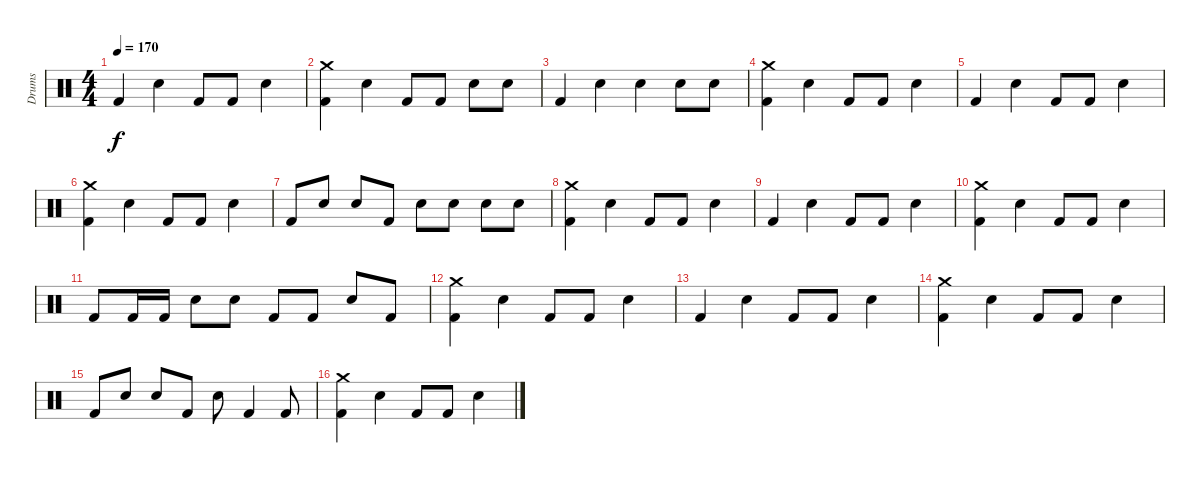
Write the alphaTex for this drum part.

\track ("Drums" "Drums") {instrument percussion}
\staff {score}
\articulation defaults
\ts (4 4)
\tempo 170
\clef neutral
\ks c "Kick (hit) 2".4{dy f} "Snare (hit) 2".4 "Kick (hit) 2".8 "Kick (hit) 2".8 "Snare (hit) 2".4
|
("Crash medium (hit)" "Kick (hit) 2").4 "Snare (hit) 2".4 "Kick (hit) 2".8 "Kick (hit) 2".8 "Snare (hit) 2".8 "Snare (hit) 2".8 |
"Kick (hit) 2".4 "Snare (hit) 2".4 "Snare (hit) 2".4 "Snare (hit) 2".8 "Snare (hit) 2".8 |
("Crash medium (hit)" "Kick (hit) 2").4 "Snare (hit) 2".4 "Kick (hit) 2".8 "Kick (hit) 2".8 "Snare (hit) 2".4 |
"Kick (hit) 2".4 "Snare (hit) 2".4 "Kick (hit) 2".8 "Kick (hit) 2".8 "Snare (hit) 2".4 |
("Crash medium (hit)" "Kick (hit) 2").4 "Snare (hit) 2".4 "Kick (hit) 2".8 "Kick (hit) 2".8 "Snare (hit) 2".4 |
"Kick (hit) 2".8 "Snare (hit) 2".8 "Snare (hit) 2".8 "Kick (hit) 2".8 "Snare (hit) 2".8 "Snare (hit) 2".8 "Snare (hit) 2".8 "Snare (hit) 2".8 |
("Crash medium (hit)" "Kick (hit) 2").4 "Snare (hit) 2".4 "Kick (hit) 2".8 "Kick (hit) 2".8 "Snare (hit) 2".4 |
"Kick (hit) 2".4 "Snare (hit) 2".4 "Kick (hit) 2".8 "Kick (hit) 2".8 "Snare (hit) 2".4 |
("Crash medium (hit)" "Kick (hit) 2").4 "Snare (hit) 2".4 "Kick (hit) 2".8 "Kick (hit) 2".8 "Snare (hit) 2".4 |
"Kick (hit) 2".8 "Kick (hit) 2".16 "Kick (hit) 2".16 "Snare (hit) 2".8 "Snare (hit) 2".8 "Kick (hit) 2".8 "Kick (hit) 2".8 "Snare (hit) 2".8 "Kick (hit) 2".8 |
("Crash medium (hit)" "Kick (hit) 2").4 "Snare (hit) 2".4 "Kick (hit) 2".8 "Kick (hit) 2".8 "Snare (hit) 2".4 |
"Kick (hit) 2".4 "Snare (hit) 2".4 "Kick (hit) 2".8 "Kick (hit) 2".8 "Snare (hit) 2".4 |
("Crash medium (hit)" "Kick (hit) 2").4 "Snare (hit) 2".4 "Kick (hit) 2".8 "Kick (hit) 2".8 "Snare (hit) 2".4 |
"Kick (hit) 2".8 "Snare (hit) 2".8 "Snare (hit) 2".8 "Kick (hit) 2".8 "Snare (hit) 2".8 "Kick (hit) 2".4 "Kick (hit) 2".8 |
("Crash medium (hit)" "Kick (hit) 2").4 "Snare (hit) 2".4 "Kick (hit) 2".8 "Kick (hit) 2".8 "Snare (hit) 2".4
